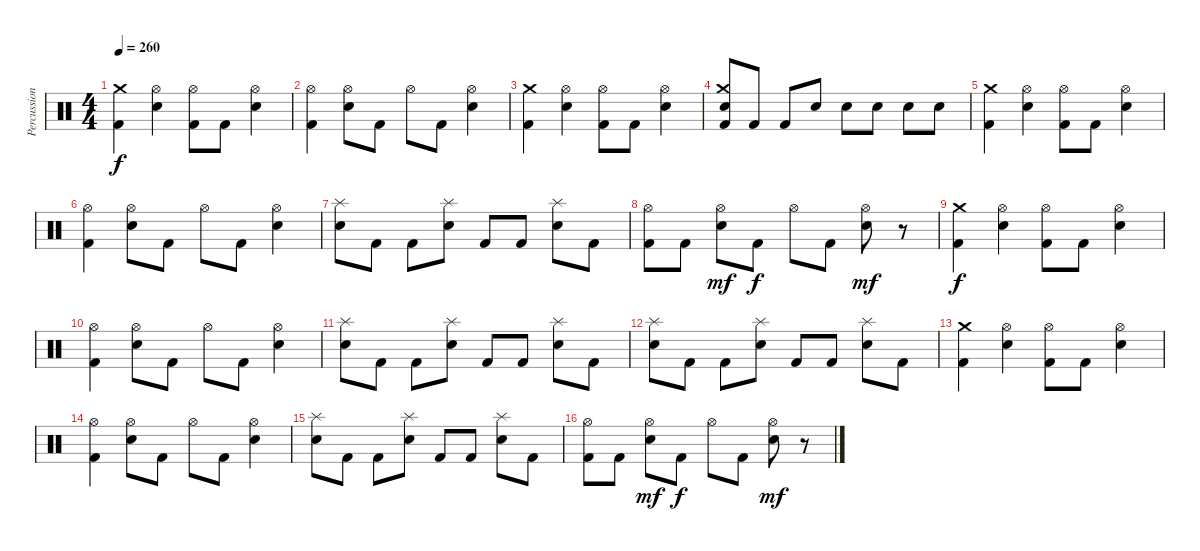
\track ("Percussion" "Percussion") {instrument percussion}
\staff {score}
\articulation defaults
\ts (4 4)
\tempo 260
\clef neutral
\ks c
("Kick (hit) 2" "Crash medium (hit)").4{dy f} ("Electric Snare (hit)" "Hi-Hat (open)").4 ("Kick (hit) 2" "Hi-Hat (open)").8 "Kick (hit) 2".8 ("Electric Snare (hit)" "Hi-Hat (open)").4 |
("Kick (hit) 2" "Hi-Hat (open)").4 ("Electric Snare (hit)" "Hi-Hat (open)").8 "Kick (hit) 2".8 "Hi-Hat (open)".8 "Kick (hit) 2".8 ("Electric Snare (hit)" "Hi-Hat (open)").4 |
("Kick (hit) 2" "Crash medium (hit)").4 ("Electric Snare (hit)" "Hi-Hat (open)").4 ("Kick (hit) 2" "Hi-Hat (open)").8 "Kick (hit) 2".8 ("Electric Snare (hit)" "Hi-Hat (open)").4 |
("Kick (hit) 2" "Electric Snare (hit)" "Crash medium (hit)").8 "Kick (hit) 2".8 "Kick (hit) 2".8 "Electric Snare (hit)".8 "Electric Snare (hit)".8 "Electric Snare (hit)".8 "Electric Snare (hit)".8 "Electric Snare (hit)".8 |
("Kick (hit) 2" "Crash medium (hit)").4 ("Electric Snare (hit)" "Hi-Hat (open)").4 ("Kick (hit) 2" "Hi-Hat (open)").8 "Kick (hit) 2".8 ("Electric Snare (hit)" "Hi-Hat (open)").4 |
("Kick (hit) 2" "Hi-Hat (open)").4 ("Electric Snare (hit)" "Hi-Hat (open)").8 "Kick (hit) 2".8 "Hi-Hat (open)".8 "Kick (hit) 2".8 ("Electric Snare (hit)" "Hi-Hat (open)").4 |
("Electric Snare (hit)" "Splash (hit)").8 "Kick (hit) 2".8 "Kick (hit) 2".8 ("Electric Snare (hit)" "Splash (hit)").8 "Kick (hit) 2".8 "Kick (hit) 2".8 ("Electric Snare (hit)" "Splash (hit)").8 "Kick (hit) 2".8 |
("Hi-Hat (open)" "Kick (hit) 2").8 "Kick (hit) 2".8 ("Hi-Hat (open)" "Electric Snare (hit)").8{dy mf} "Kick (hit) 2".8{dy f} "Hi-Hat (open)".8 "Kick (hit) 2".8 ("Hi-Hat (open)" "Electric Snare (hit)").8{dy mf} r.8 |
("Kick (hit) 2" "Crash medium (hit)").4{dy f} ("Electric Snare (hit)" "Hi-Hat (open)").4 ("Kick (hit) 2" "Hi-Hat (open)").8 "Kick (hit) 2".8 ("Electric Snare (hit)" "Hi-Hat (open)").4 |
("Kick (hit) 2" "Hi-Hat (open)").4 ("Electric Snare (hit)" "Hi-Hat (open)").8 "Kick (hit) 2".8 "Hi-Hat (open)".8 "Kick (hit) 2".8 ("Electric Snare (hit)" "Hi-Hat (open)").4 |
("Splash (hit)" "Electric Snare (hit)").8 "Kick (hit) 2".8 "Kick (hit) 2".8 ("Splash (hit)" "Electric Snare (hit)").8 "Kick (hit) 2".8 "Kick (hit) 2".8 ("Splash (hit)" "Electric Snare (hit)").8 "Kick (hit) 2".8 |
("Splash (hit)" "Electric Snare (hit)").8 "Kick (hit) 2".8 "Kick (hit) 2".8 ("Splash (hit)" "Electric Snare (hit)").8 "Kick (hit) 2".8 "Kick (hit) 2".8 ("Splash (hit)" "Electric Snare (hit)").8 "Kick (hit) 2".8 |
("Kick (hit) 2" "Crash medium (hit)").4 ("Electric Snare (hit)" "Hi-Hat (open)").4 ("Kick (hit) 2" "Hi-Hat (open)").8 "Kick (hit) 2".8 ("Electric Snare (hit)" "Hi-Hat (open)").4 |
("Kick (hit) 2" "Hi-Hat (open)").4 ("Electric Snare (hit)" "Hi-Hat (open)").8 "Kick (hit) 2".8 "Hi-Hat (open)".8 "Kick (hit) 2".8 ("Electric Snare (hit)" "Hi-Hat (open)").4 |
("Electric Snare (hit)" "Splash (hit)").8 "Kick (hit) 2".8 "Kick (hit) 2".8 ("Electric Snare (hit)" "Splash (hit)").8 "Kick (hit) 2".8 "Kick (hit) 2".8 ("Electric Snare (hit)" "Splash (hit)").8 "Kick (hit) 2".8 |
("Hi-Hat (open)" "Kick (hit) 2").8 "Kick (hit) 2".8 ("Hi-Hat (open)" "Electric Snare (hit)").8{dy mf} "Kick (hit) 2".8{dy f} "Hi-Hat (open)".8 "Kick (hit) 2".8 ("Hi-Hat (open)" "Electric Snare (hit)").8{dy mf} r.8
